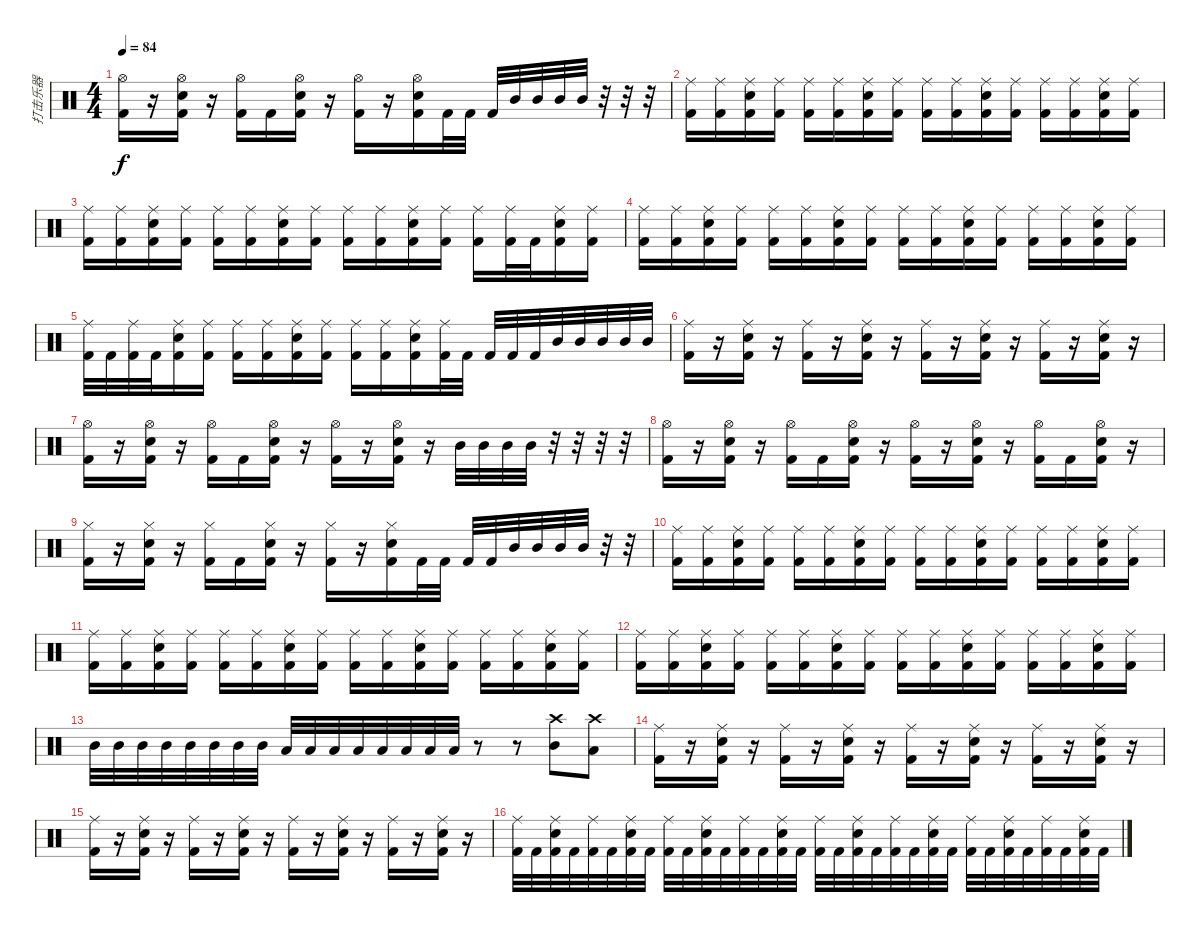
\track ("打击乐器" "打击乐器") {instrument percussion}
\staff {score}
\articulation defaults
\ts (4 4)
\tempo 84
\clef neutral
\ks c
("Hi-Hat (open)" "Kick (hit) 2").16{dy f} r.16 ("Hi-Hat (open)" "Snare (hit) 2" "Kick (hit) 2").16 r.16 ("Hi-Hat (open)" "Kick (hit) 2").16 "Kick (hit) 2".16 ("Hi-Hat (open)" "Snare (hit) 2" "Kick (hit) 2").16 r.16 ("Hi-Hat (open)" "Kick (hit) 2").16 r.16 ("Hi-Hat (open)" "Snare (hit) 2" "Kick (hit) 2").16 "Kick (hit) 2".32 "Kick (hit) 2".32 "Kick (hit) 2".32 "Mid Tom (hit)".32 "Mid Tom (hit)".32 "Mid Tom (hit)".32 "Mid Tom (hit)".32 r.32 r.32 r.32 |
("Ride (middle)" "Kick (hit) 2").16 ("Ride (middle)" "Kick (hit) 2").16 ("Ride (middle)" "Snare (hit) 2" "Kick (hit) 2").16 ("Ride (middle)" "Kick (hit) 2").16 ("Ride (middle)" "Kick (hit) 2").16 ("Ride (middle)" "Kick (hit) 2").16 ("Ride (middle)" "Snare (hit) 2" "Kick (hit) 2").16 ("Ride (middle)" "Kick (hit) 2").16 ("Ride (middle)" "Kick (hit) 2").16 ("Ride (middle)" "Kick (hit) 2").16 ("Ride (middle)" "Snare (hit) 2" "Kick (hit) 2").16 ("Ride (middle)" "Kick (hit) 2").16 ("Ride (middle)" "Kick (hit) 2").16 ("Ride (middle)" "Kick (hit) 2").16 ("Ride (middle)" "Snare (hit) 2" "Kick (hit) 2").16 ("Ride (middle)" "Kick (hit) 2").16 |
("Ride (middle)" "Kick (hit) 2").16 ("Ride (middle)" "Kick (hit) 2").16 ("Ride (middle)" "Snare (hit) 2" "Kick (hit) 2").16 ("Ride (middle)" "Kick (hit) 2").16 ("Ride (middle)" "Kick (hit) 2").16 ("Ride (middle)" "Kick (hit) 2").16 ("Ride (middle)" "Snare (hit) 2" "Kick (hit) 2").16 ("Ride (middle)" "Kick (hit) 2").16 ("Ride (middle)" "Kick (hit) 2").16 ("Ride (middle)" "Kick (hit) 2").16 ("Ride (middle)" "Snare (hit) 2" "Kick (hit) 2").16 ("Ride (middle)" "Kick (hit) 2").16 ("Ride (middle)" "Kick (hit) 2").16 ("Ride (middle)" "Kick (hit) 2").32 "Kick (hit) 2".32 ("Ride (middle)" "Snare (hit) 2" "Kick (hit) 2").16 ("Ride (middle)" "Kick (hit) 2").16 |
("Ride (middle)" "Kick (hit) 2").16 ("Ride (middle)" "Kick (hit) 2").16 ("Ride (middle)" "Snare (hit) 2" "Kick (hit) 2").16 ("Ride (middle)" "Kick (hit) 2").16 ("Ride (middle)" "Kick (hit) 2").16 ("Ride (middle)" "Kick (hit) 2").16 ("Ride (middle)" "Snare (hit) 2" "Kick (hit) 2").16 ("Ride (middle)" "Kick (hit) 2").16 ("Ride (middle)" "Kick (hit) 2").16 ("Ride (middle)" "Kick (hit) 2").16 ("Ride (middle)" "Snare (hit) 2" "Kick (hit) 2").16 ("Ride (middle)" "Kick (hit) 2").16 ("Ride (middle)" "Kick (hit) 2").16 ("Ride (middle)" "Kick (hit) 2").16 ("Ride (middle)" "Snare (hit) 2" "Kick (hit) 2").16 ("Ride (middle)" "Kick (hit) 2").16 |
("Ride (middle)" "Kick (hit) 2").32 "Kick (hit) 2".32 ("Ride (middle)" "Kick (hit) 2").32 "Kick (hit) 2".32 ("Ride (middle)" "Snare (hit) 2" "Kick (hit) 2").16 ("Ride (middle)" "Kick (hit) 2").16 ("Ride (middle)" "Kick (hit) 2").16 ("Ride (middle)" "Kick (hit) 2").16 ("Ride (middle)" "Snare (hit) 2" "Kick (hit) 2").16 ("Ride (middle)" "Kick (hit) 2").16 ("Ride (middle)" "Kick (hit) 2").16 ("Ride (middle)" "Kick (hit) 2").16 ("Ride (middle)" "Snare (hit) 2" "Kick (hit) 2").16 ("Ride (middle)" "Kick (hit) 2").32 "Kick (hit) 2".32 "Kick (hit) 2".32 "Kick (hit) 2".32 "Kick (hit) 2".32 "Mid Tom (hit)".32 "Mid Tom (hit)".32 "Mid Tom (hit)".32 "Mid Tom (hit)".32 "Mid Tom (hit)".32 |
("Ride (middle)" "Kick (hit) 2").16 r.16 ("Ride (middle)" "Snare (hit) 2" "Kick (hit) 2").16 r.16 ("Ride (middle)" "Kick (hit) 2").16 r.16 ("Ride (middle)" "Snare (hit) 2" "Kick (hit) 2").16 r.16 ("Ride (middle)" "Kick (hit) 2").16 r.16 ("Ride (middle)" "Snare (hit) 2" "Kick (hit) 2").16 r.16 ("Ride (middle)" "Kick (hit) 2").16 r.16 ("Ride (middle)" "Snare (hit) 2" "Kick (hit) 2").16 r.16 |
("Hi-Hat (open)" "Kick (hit) 2").16 r.16 ("Hi-Hat (open)" "Snare (hit) 2" "Kick (hit) 2").16 r.16 ("Hi-Hat (open)" "Kick (hit) 2").16 "Kick (hit) 2".16 ("Hi-Hat (open)" "Snare (hit) 2" "Kick (hit) 2").16 r.16 ("Hi-Hat (open)" "Kick (hit) 2").16 r.16 ("Hi-Hat (open)" "Snare (hit) 2" "Kick (hit) 2").16 r.16 "Mid Tom (hit)".32 "Mid Tom (hit)".32 "Mid Tom (hit)".32 "Mid Tom (hit)".32 r.32 r.32 r.32 r.32 |
("Hi-Hat (open)" "Kick (hit) 2").16 r.16 ("Hi-Hat (open)" "Snare (hit) 2" "Kick (hit) 2").16 r.16 ("Hi-Hat (open)" "Kick (hit) 2").16 "Kick (hit) 2".16 ("Hi-Hat (open)" "Snare (hit) 2" "Kick (hit) 2").16 r.16 ("Hi-Hat (open)" "Kick (hit) 2").16 r.16 ("Hi-Hat (open)" "Snare (hit) 2" "Kick (hit) 2").16 r.16 ("Hi-Hat (open)" "Kick (hit) 2").16 "Kick (hit) 2".16 ("Hi-Hat (open)" "Snare (hit) 2" "Kick (hit) 2").16 r.16 |
("Hi-Hat (closed)" "Kick (hit) 2").16 r.16 ("Hi-Hat (closed)" "Snare (hit) 2" "Kick (hit) 2").16 r.16 ("Hi-Hat (closed)" "Kick (hit) 2").16 "Kick (hit) 2".16 ("Hi-Hat (closed)" "Snare (hit) 2" "Kick (hit) 2").16 r.16 ("Hi-Hat (closed)" "Kick (hit) 2").16 r.16 ("Hi-Hat (closed)" "Snare (hit) 2" "Kick (hit) 2").16 "Kick (hit) 2".32 "Kick (hit) 2".32 "Kick (hit) 2".32 "Kick (hit) 2".32 "Mid Tom (hit)".32 "Mid Tom (hit)".32 "Mid Tom (hit)".32 "Mid Tom (hit)".32 r.32 r.32 |
("Ride (middle)" "Kick (hit) 2").16 ("Ride (middle)" "Kick (hit) 2").16 ("Ride (middle)" "Snare (hit) 2" "Kick (hit) 2").16 ("Ride (middle)" "Kick (hit) 2").16 ("Ride (middle)" "Kick (hit) 2").16 ("Ride (middle)" "Kick (hit) 2").16 ("Ride (middle)" "Snare (hit) 2" "Kick (hit) 2").16 ("Ride (middle)" "Kick (hit) 2").16 ("Ride (middle)" "Kick (hit) 2").16 ("Ride (middle)" "Kick (hit) 2").16 ("Ride (middle)" "Snare (hit) 2" "Kick (hit) 2").16 ("Ride (middle)" "Kick (hit) 2").16 ("Ride (middle)" "Kick (hit) 2").16 ("Ride (middle)" "Kick (hit) 2").16 ("Ride (middle)" "Snare (hit) 2" "Kick (hit) 2").16 ("Ride (middle)" "Kick (hit) 2").16 |
("Ride (middle)" "Kick (hit) 2").16 ("Ride (middle)" "Kick (hit) 2").16 ("Ride (middle)" "Snare (hit) 2" "Kick (hit) 2").16 ("Ride (middle)" "Kick (hit) 2").16 ("Ride (middle)" "Kick (hit) 2").16 ("Ride (middle)" "Kick (hit) 2").16 ("Ride (middle)" "Snare (hit) 2" "Kick (hit) 2").16 ("Ride (middle)" "Kick (hit) 2").16 ("Ride (middle)" "Kick (hit) 2").16 ("Ride (middle)" "Kick (hit) 2").16 ("Ride (middle)" "Snare (hit) 2" "Kick (hit) 2").16 ("Ride (middle)" "Kick (hit) 2").16 ("Ride (middle)" "Kick (hit) 2").16 ("Ride (middle)" "Kick (hit) 2").16 ("Ride (middle)" "Snare (hit) 2" "Kick (hit) 2").16 ("Ride (middle)" "Kick (hit) 2").16 |
("Ride (middle)" "Kick (hit) 2").16 ("Ride (middle)" "Kick (hit) 2").16 ("Ride (middle)" "Snare (hit) 2" "Kick (hit) 2").16 ("Ride (middle)" "Kick (hit) 2").16 ("Ride (middle)" "Kick (hit) 2").16 ("Ride (middle)" "Kick (hit) 2").16 ("Ride (middle)" "Snare (hit) 2" "Kick (hit) 2").16 ("Ride (middle)" "Kick (hit) 2").16 ("Ride (middle)" "Kick (hit) 2").16 ("Ride (middle)" "Kick (hit) 2").16 ("Ride (middle)" "Snare (hit) 2" "Kick (hit) 2").16 ("Ride (middle)" "Kick (hit) 2").16 ("Ride (middle)" "Kick (hit) 2").16 ("Ride (middle)" "Kick (hit) 2").16 ("Ride (middle)" "Snare (hit) 2" "Kick (hit) 2").16 ("Ride (middle)" "Kick (hit) 2").16 |
"Mid Tom (hit)".32 "Mid Tom (hit)".32 "Mid Tom (hit)".32 "Mid Tom (hit)".32 "Mid Tom (hit)".32 "Mid Tom (hit)".32 "Mid Tom (hit)".32 "Mid Tom (hit)".32 "Low Tom (hit)".32 "Low Tom (hit)".32 "Low Tom (hit)".32 "Low Tom (hit)".32 "Low Tom (hit)".32 "Low Tom (hit)".32 "Low Tom (hit)".32 "Low Tom (hit)".32 r.8 r.8 ("Crash high (hit)" "Mid Tom (hit)").8 ("Crash high (hit)" "Low Tom (hit)").8 |
("Ride (middle)" "Kick (hit) 2").16 r.16 ("Ride (middle)" "Snare (hit) 2" "Kick (hit) 2").16 r.16 ("Ride (middle)" "Kick (hit) 2").16 r.16 ("Ride (middle)" "Snare (hit) 2" "Kick (hit) 2").16 r.16 ("Ride (middle)" "Kick (hit) 2").16 r.16 ("Ride (middle)" "Snare (hit) 2" "Kick (hit) 2").16 r.16 ("Ride (middle)" "Kick (hit) 2").16 r.16 ("Ride (middle)" "Snare (hit) 2" "Kick (hit) 2").16 r.16 |
("Ride (middle)" "Kick (hit) 2").16 r.16 ("Ride (middle)" "Snare (hit) 2" "Kick (hit) 2").16 r.16 ("Ride (middle)" "Kick (hit) 2").16 r.16 ("Ride (middle)" "Snare (hit) 2" "Kick (hit) 2").16 r.16 ("Ride (middle)" "Kick (hit) 2").16 r.16 ("Ride (middle)" "Snare (hit) 2" "Kick (hit) 2").16 r.16 ("Ride (middle)" "Kick (hit) 2").16 r.16 ("Ride (middle)" "Snare (hit) 2" "Kick (hit) 2").16 r.16 |
("Ride (middle)" "Kick (hit) 2").32 "Kick (hit) 2".32 ("Ride (middle)" "Snare (hit) 2" "Kick (hit) 2").32 "Kick (hit) 2".32 ("Ride (middle)" "Kick (hit) 2").32 "Kick (hit) 2".32 ("Ride (middle)" "Snare (hit) 2" "Kick (hit) 2").32 "Kick (hit) 2".32 ("Ride (middle)" "Kick (hit) 2").32 "Kick (hit) 2".32 ("Ride (middle)" "Snare (hit) 2" "Kick (hit) 2").32 "Kick (hit) 2".32 ("Ride (middle)" "Kick (hit) 2").32 "Kick (hit) 2".32 ("Ride (middle)" "Snare (hit) 2" "Kick (hit) 2").32 "Kick (hit) 2".32 ("Ride (middle)" "Kick (hit) 2").32 "Kick (hit) 2".32 ("Ride (middle)" "Snare (hit) 2" "Kick (hit) 2").32 "Kick (hit) 2".32 ("Ride (middle)" "Kick (hit) 2").32 "Kick (hit) 2".32 ("Ride (middle)" "Snare (hit) 2" "Kick (hit) 2").32 "Kick (hit) 2".32 ("Ride (middle)" "Kick (hit) 2").32 "Kick (hit) 2".32 ("Ride (middle)" "Snare (hit) 2" "Kick (hit) 2").32 "Kick (hit) 2".32 ("Ride (middle)" "Kick (hit) 2").32 "Kick (hit) 2".32 ("Ride (middle)" "Snare (hit) 2" "Kick (hit) 2").32 "Kick (hit) 2".32
